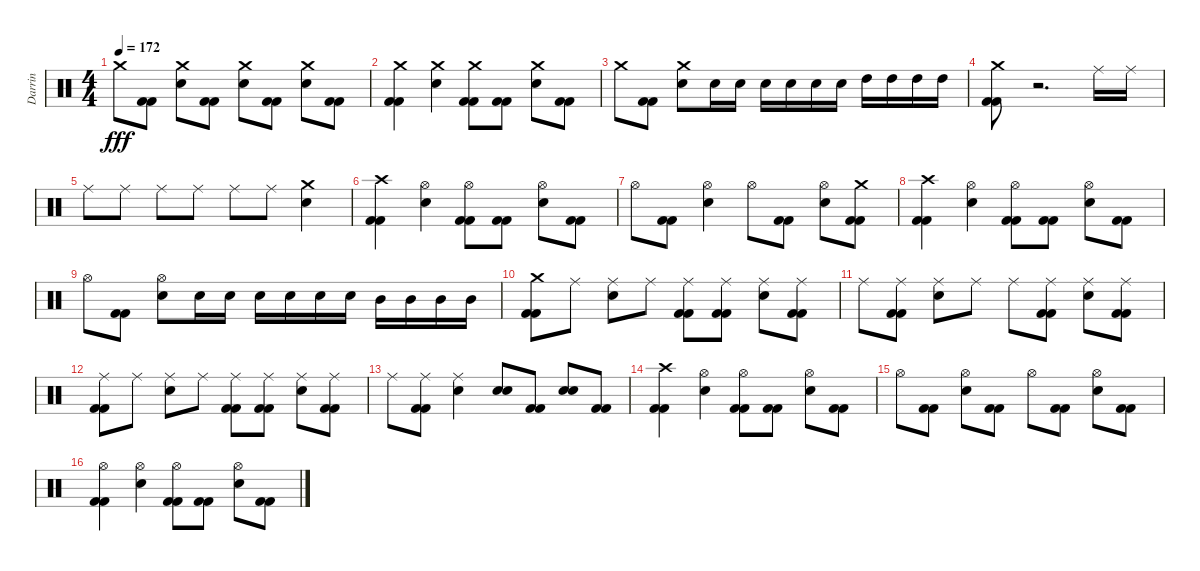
\track ("Darrin" "Darrin") {instrument percussion}
\staff {score}
\articulation defaults
\ts (4 4)
\tempo 172
\clef neutral
\ks c "Crash medium (hit)".8{dy fff}
("Kick (hit) 2" "Kick (hit) 2").8 ("Crash medium (hit)" "Snare (hit) 2").8 ("Kick (hit) 2" "Kick (hit) 2").8 ("Crash medium (hit)" "Snare (hit) 2").8 ("Kick (hit) 2" "Kick (hit) 2").8 ("Crash medium (hit)" "Snare (hit) 2").8 ("Kick (hit) 2" "Kick (hit) 2").8 |
("Crash medium (hit)" "Kick (hit) 2" "Kick (hit) 2").4 ("Crash medium (hit)" "Snare (hit) 2").4 ("Crash medium (hit)" "Kick (hit) 2" "Kick (hit) 2").8 ("Kick (hit) 2" "Kick (hit) 2").8 ("Crash medium (hit)" "Snare (hit) 2").8 ("Kick (hit) 2" "Kick (hit) 2").8 |
"Crash medium (hit)".8 ("Kick (hit) 2" "Kick (hit) 2").8 ("Crash medium (hit)" "Snare (hit) 2").8 "Snare (hit) 2".16 "Snare (hit) 2".16 "Snare (hit) 2".16 "Snare (hit) 2".16 "Snare (hit) 2".16 "Snare (hit) 2".16 "High Tom (hit)".16 "High Tom (hit)".16 "High Tom (hit)".16 "High Tom (hit)".16 |
("Crash medium (hit)" "Kick (hit) 2" "Kick (hit) 2").8 r.2{d} "Ride (middle)".16 "Ride (middle)".16 |
"Ride (middle)".8 "Ride (middle)".8 "Ride (middle)".8 "Ride (middle)".8 "Ride (middle)".8 "Ride (middle)".8 ("Crash medium (hit)" "Snare (hit) 2").4 |
("Crash high (hit)" "Kick (hit) 2" "Kick (hit) 2").4 ("Hi-Hat (open)" "Snare (hit) 2").4 ("Hi-Hat (open)" "Kick (hit) 2" "Kick (hit) 2").8 ("Kick (hit) 2" "Kick (hit) 2").8 ("Hi-Hat (open)" "Snare (hit) 2").8 ("Kick (hit) 2" "Kick (hit) 2").8 |
"Hi-Hat (open)".8 ("Kick (hit) 2" "Kick (hit) 2").8 ("Hi-Hat (open)" "Snare (hit) 2").4 "Hi-Hat (open)".8 ("Kick (hit) 2" "Kick (hit) 2").8 ("Hi-Hat (open)" "Snare (hit) 2").8 ("Crash medium (hit)" "Kick (hit) 2" "Kick (hit) 2").8 |
("Crash high (hit)" "Kick (hit) 2" "Kick (hit) 2").4 ("Hi-Hat (open)" "Snare (hit) 2").4 ("Hi-Hat (open)" "Kick (hit) 2" "Kick (hit) 2").8 ("Kick (hit) 2" "Kick (hit) 2").8 ("Hi-Hat (open)" "Snare (hit) 2").8 ("Kick (hit) 2" "Kick (hit) 2").8 |
"Hi-Hat (open)".8 ("Kick (hit) 2" "Kick (hit) 2").8 ("Hi-Hat (open)" "Snare (hit) 2").8 "Snare (hit) 2".16 "Snare (hit) 2".16 "Snare (hit) 2".16 "Snare (hit) 2".16 "Snare (hit) 2".16 "Snare (hit) 2".16 "Mid Tom (hit)".16 "Mid Tom (hit)".16 "Mid Tom (hit)".16 "Mid Tom (hit)".16 |
("Crash medium (hit)" "Kick (hit) 2" "Kick (hit) 2").8 "Ride (middle)".8 ("Ride (middle)" "Snare (hit) 2").8 "Ride (middle)".8 ("Ride (middle)" "Kick (hit) 2" "Kick (hit) 2").8 ("Ride (middle)" "Kick (hit) 2" "Kick (hit) 2").8 ("Ride (middle)" "Snare (hit) 2").8 ("Ride (middle)" "Kick (hit) 2" "Kick (hit) 2").8 |
"Ride (middle)".8 ("Ride (middle)" "Kick (hit) 2" "Kick (hit) 2").8 ("Ride (middle)" "Snare (hit) 2").8 "Ride (middle)".8 "Ride (middle)".8 ("Ride (middle)" "Kick (hit) 2" "Kick (hit) 2").8 ("Ride (middle)" "Snare (hit) 2").8 ("Ride (middle)" "Kick (hit) 2" "Kick (hit) 2").8 |
("Ride (middle)" "Kick (hit) 2" "Kick (hit) 2").8 "Ride (middle)".8 ("Ride (middle)" "Snare (hit) 2").8 "Ride (middle)".8 ("Ride (middle)" "Kick (hit) 2" "Kick (hit) 2").8 ("Ride (middle)" "Kick (hit) 2" "Kick (hit) 2").8 ("Ride (middle)" "Snare (hit) 2").8 ("Ride (middle)" "Kick (hit) 2" "Kick (hit) 2").8 |
"Ride (middle)".8 ("Ride (middle)" "Kick (hit) 2" "Kick (hit) 2").8 ("Ride (middle)" "Snare (hit) 2").4 ("Snare (hit) 2" "Snare (hit) 2").8 ("Kick (hit) 2" "Kick (hit) 2").8 ("Snare (hit) 2" "Snare (hit) 2").8 ("Kick (hit) 2" "Kick (hit) 2").8 |
("Crash high (hit)" "Kick (hit) 2" "Kick (hit) 2").4 ("Hi-Hat (open)" "Snare (hit) 2").4 ("Hi-Hat (open)" "Kick (hit) 2" "Kick (hit) 2").8 ("Kick (hit) 2" "Kick (hit) 2").8 ("Hi-Hat (open)" "Snare (hit) 2").8 ("Kick (hit) 2" "Kick (hit) 2").8 |
"Hi-Hat (open)".8 ("Kick (hit) 2" "Kick (hit) 2").8 ("Hi-Hat (open)" "Snare (hit) 2").8 ("Kick (hit) 2" "Kick (hit) 2").8 "Hi-Hat (open)".8 ("Kick (hit) 2" "Kick (hit) 2").8 ("Hi-Hat (open)" "Snare (hit) 2").8 ("Kick (hit) 2" "Kick (hit) 2").8 |
("Hi-Hat (open)" "Kick (hit) 2" "Kick (hit) 2").4 ("Hi-Hat (open)" "Snare (hit) 2").4 ("Hi-Hat (open)" "Kick (hit) 2" "Kick (hit) 2").8 ("Kick (hit) 2" "Kick (hit) 2").8 ("Hi-Hat (open)" "Snare (hit) 2").8 ("Kick (hit) 2" "Kick (hit) 2").8
